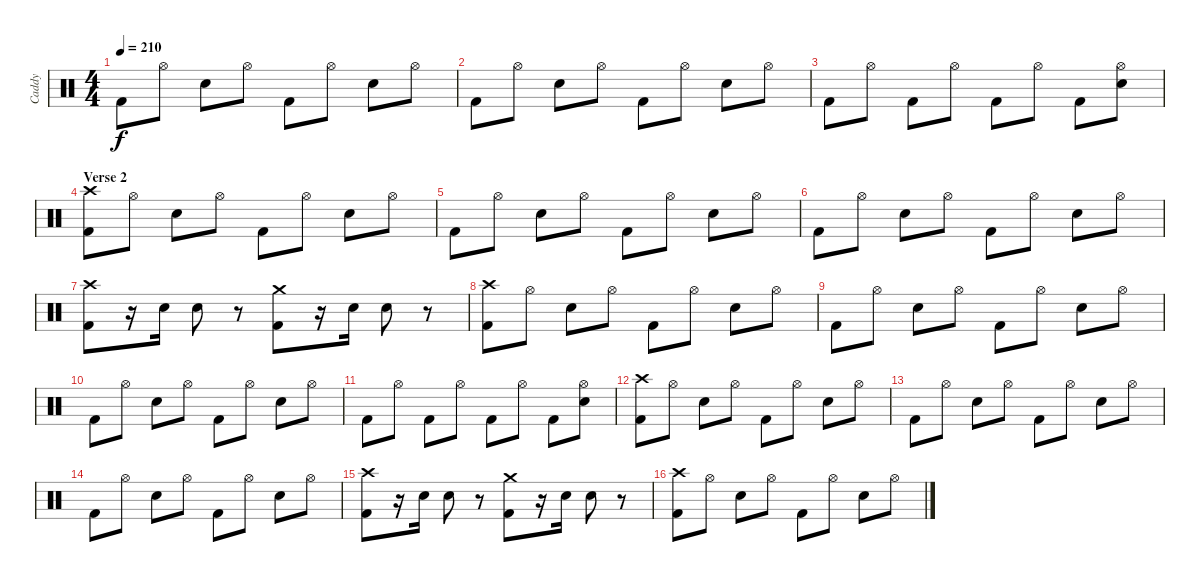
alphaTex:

\track ("Caddy" "Caddy") {instrument percussion}
\staff {score}
\articulation defaults
\ts (4 4)
\tempo 210
\clef neutral
\ks c "Kick (hit) 2".8{dy f} "Hi-Hat (open)".8 "Electric Snare (hit)".8 "Hi-Hat (open)".8 "Kick (hit) 2".8 "Hi-Hat (open)".8 "Electric Snare (hit)".8 "Hi-Hat (open)".8
|
"Kick (hit) 2".8 "Hi-Hat (open)".8 "Electric Snare (hit)".8 "Hi-Hat (open)".8 "Kick (hit) 2".8 "Hi-Hat (open)".8 "Electric Snare (hit)".8 "Hi-Hat (open)".8 |
"Kick (hit) 2".8 "Hi-Hat (open)".8 "Kick (hit) 2".8 "Hi-Hat (open)".8 "Kick (hit) 2".8 "Hi-Hat (open)".8 "Kick (hit) 2".8 ("Hi-Hat (open)" "Electric Snare (hit)").8 |
\section ("" "Verse 2")
("Crash high (hit)" "Kick (hit) 2").8 "Hi-Hat (open)".8 "Electric Snare (hit)".8 "Hi-Hat (open)".8 "Kick (hit) 2".8 "Hi-Hat (open)".8 "Electric Snare (hit)".8 "Hi-Hat (open)".8 |
"Kick (hit) 2".8 "Hi-Hat (open)".8 "Electric Snare (hit)".8 "Hi-Hat (open)".8 "Kick (hit) 2".8 "Hi-Hat (open)".8 "Electric Snare (hit)".8 "Hi-Hat (open)".8 |
"Kick (hit) 2".8 "Hi-Hat (open)".8 "Electric Snare (hit)".8 "Hi-Hat (open)".8 "Kick (hit) 2".8 "Hi-Hat (open)".8 "Electric Snare (hit)".8 "Hi-Hat (open)".8 |
("Crash high (hit)" "Kick (hit) 2").8 r.16 "Electric Snare (hit)".16 "Electric Snare (hit)".8 r.8 ("Crash medium (hit)" "Kick (hit) 2").8 r.16 "Electric Snare (hit)".16 "Electric Snare (hit)".8 r.8 |
("Crash high (hit)" "Kick (hit) 2").8 "Hi-Hat (open)".8 "Electric Snare (hit)".8 "Hi-Hat (open)".8 "Kick (hit) 2".8 "Hi-Hat (open)".8 "Electric Snare (hit)".8 "Hi-Hat (open)".8 |
"Kick (hit) 2".8 "Hi-Hat (open)".8 "Electric Snare (hit)".8 "Hi-Hat (open)".8 "Kick (hit) 2".8 "Hi-Hat (open)".8 "Electric Snare (hit)".8 "Hi-Hat (open)".8 |
"Kick (hit) 2".8 "Hi-Hat (open)".8 "Electric Snare (hit)".8 "Hi-Hat (open)".8 "Kick (hit) 2".8 "Hi-Hat (open)".8 "Electric Snare (hit)".8 "Hi-Hat (open)".8 |
"Kick (hit) 2".8 "Hi-Hat (open)".8 "Kick (hit) 2".8 "Hi-Hat (open)".8 "Kick (hit) 2".8 "Hi-Hat (open)".8 "Kick (hit) 2".8 ("Hi-Hat (open)" "Electric Snare (hit)").8 |
("Crash high (hit)" "Kick (hit) 2").8 "Hi-Hat (open)".8 "Electric Snare (hit)".8 "Hi-Hat (open)".8 "Kick (hit) 2".8 "Hi-Hat (open)".8 "Electric Snare (hit)".8 "Hi-Hat (open)".8 |
"Kick (hit) 2".8 "Hi-Hat (open)".8 "Electric Snare (hit)".8 "Hi-Hat (open)".8 "Kick (hit) 2".8 "Hi-Hat (open)".8 "Electric Snare (hit)".8 "Hi-Hat (open)".8 |
"Kick (hit) 2".8 "Hi-Hat (open)".8 "Electric Snare (hit)".8 "Hi-Hat (open)".8 "Kick (hit) 2".8 "Hi-Hat (open)".8 "Electric Snare (hit)".8 "Hi-Hat (open)".8 |
("Crash high (hit)" "Kick (hit) 2").8 r.16 "Electric Snare (hit)".16 "Electric Snare (hit)".8 r.8 ("Crash medium (hit)" "Kick (hit) 2").8 r.16 "Electric Snare (hit)".16 "Electric Snare (hit)".8 r.8 |
("Crash high (hit)" "Kick (hit) 2").8 "Hi-Hat (open)".8 "Electric Snare (hit)".8 "Hi-Hat (open)".8 "Kick (hit) 2".8 "Hi-Hat (open)".8 "Electric Snare (hit)".8 "Hi-Hat (open)".8
